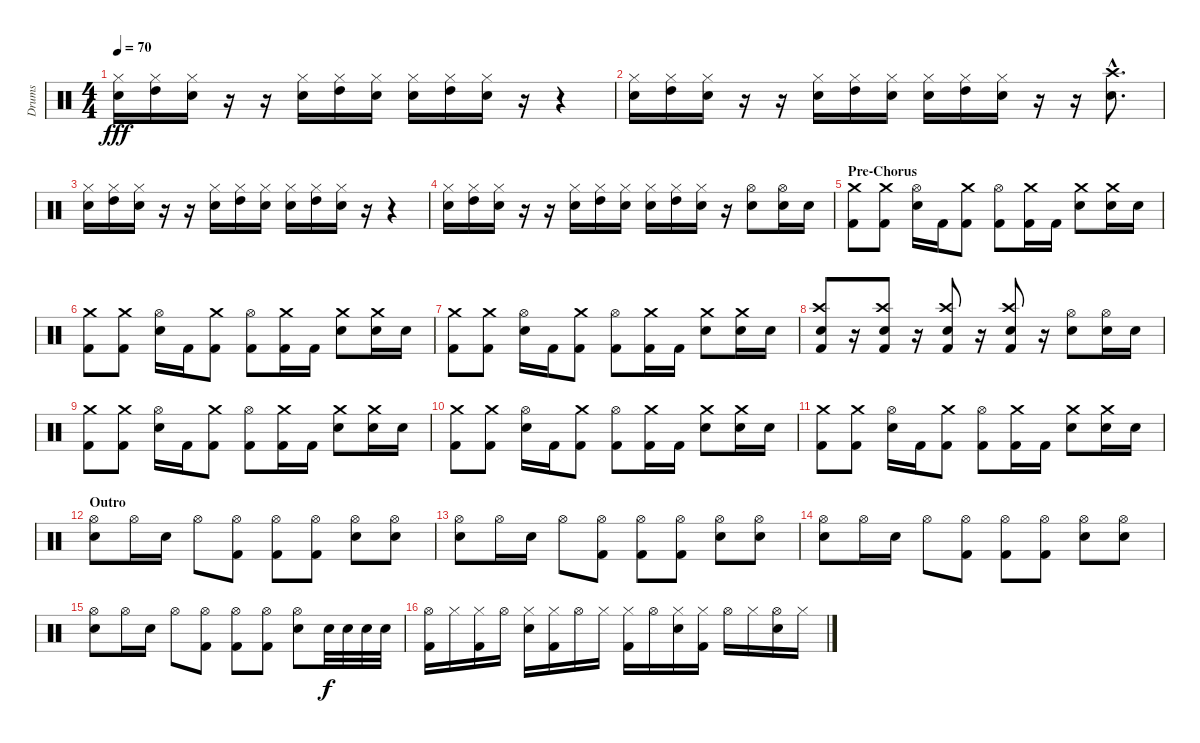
\track ("Drums" "Drums") {instrument percussion}
\staff {score}
\articulation defaults
\ts (4 4)
\tempo 70
\clef neutral
\ks c
("Hi-Hat (closed)" "Electric Snare (hit)").16{dy fff} ("High Tom (hit)" "Hi-Hat (closed)").16 ("Hi-Hat (closed)" "Electric Snare (hit)").16 r.16 r.16 ("Hi-Hat (closed)" "Electric Snare (hit)").16 ("High Tom (hit)" "Hi-Hat (closed)").16 ("Hi-Hat (closed)" "Electric Snare (hit)").16 ("Hi-Hat (closed)" "Electric Snare (hit)").16 ("High Tom (hit)" "Hi-Hat (closed)").16 ("Hi-Hat (closed)" "Electric Snare (hit)").16 r.16 r.4 |
("Hi-Hat (closed)" "Electric Snare (hit)").16 ("High Tom (hit)" "Hi-Hat (closed)").16 ("Hi-Hat (closed)" "Electric Snare (hit)").16 r.16 r.16 ("Hi-Hat (closed)" "Electric Snare (hit)").16 ("High Tom (hit)" "Hi-Hat (closed)").16 ("Hi-Hat (closed)" "Electric Snare (hit)").16 ("Hi-Hat (closed)" "Electric Snare (hit)").16 ("High Tom (hit)" "Hi-Hat (closed)").16 ("Hi-Hat (closed)" "Electric Snare (hit)").16 r.16 r.16 ("Crash high (hit)"{hac} "Electric Snare (hit)"{hac}).8{d} |
("Hi-Hat (closed)" "Electric Snare (hit)").16 ("High Tom (hit)" "Hi-Hat (closed)").16 ("Hi-Hat (closed)" "Electric Snare (hit)").16 r.16 r.16 ("Hi-Hat (closed)" "Electric Snare (hit)").16 ("High Tom (hit)" "Hi-Hat (closed)").16 ("Hi-Hat (closed)" "Electric Snare (hit)").16 ("Hi-Hat (closed)" "Electric Snare (hit)").16 ("High Tom (hit)" "Hi-Hat (closed)").16 ("Hi-Hat (closed)" "Electric Snare (hit)").16 r.16 r.4 |
("Hi-Hat (closed)" "Electric Snare (hit)").16 ("High Tom (hit)" "Hi-Hat (closed)").16 ("Hi-Hat (closed)" "Electric Snare (hit)").16 r.16 r.16 ("Hi-Hat (closed)" "Electric Snare (hit)").16 ("High Tom (hit)" "Hi-Hat (closed)").16 ("Hi-Hat (closed)" "Electric Snare (hit)").16 ("Hi-Hat (closed)" "Electric Snare (hit)").16 ("High Tom (hit)" "Hi-Hat (closed)").16 ("Hi-Hat (closed)" "Electric Snare (hit)").16 r.16 ("Hi-Hat (open)" "Electric Snare (hit)").8 ("Hi-Hat (open)" "Electric Snare (hit)").16 "Electric Snare (hit)".16 |
\section ("" "Pre-Chorus")
("Crash medium (hit)" "Kick (hit) 2").8 ("Crash medium (hit)" "Kick (hit) 2").8 ("Hi-Hat (open)" "Electric Snare (hit)").16 "Kick (hit) 2".16 ("Crash medium (hit)" "Kick (hit) 2").8 ("Hi-Hat (open)" "Kick (hit) 2").8 ("Crash medium (hit)" "Kick (hit) 2").16 "Kick (hit) 2".16 ("Crash medium (hit)" "Electric Snare (hit)").8 ("Crash medium (hit)" "Electric Snare (hit)").16 "Electric Snare (hit)".16 |
("Crash medium (hit)" "Kick (hit) 2").8 ("Crash medium (hit)" "Kick (hit) 2").8 ("Hi-Hat (open)" "Electric Snare (hit)").16 "Kick (hit) 2".16 ("Crash medium (hit)" "Kick (hit) 2").8 ("Hi-Hat (open)" "Kick (hit) 2").8 ("Crash medium (hit)" "Kick (hit) 2").16 "Kick (hit) 2".16 ("Crash medium (hit)" "Electric Snare (hit)").8 ("Crash medium (hit)" "Electric Snare (hit)").16 "Electric Snare (hit)".16 |
("Crash medium (hit)" "Kick (hit) 2").8 ("Crash medium (hit)" "Kick (hit) 2").8 ("Hi-Hat (open)" "Electric Snare (hit)").16 "Kick (hit) 2".16 ("Crash medium (hit)" "Kick (hit) 2").8 ("Hi-Hat (open)" "Kick (hit) 2").8 ("Crash medium (hit)" "Kick (hit) 2").16 "Kick (hit) 2".16 ("Crash medium (hit)" "Electric Snare (hit)").8 ("Crash medium (hit)" "Electric Snare (hit)").16 "Electric Snare (hit)".16 |
("Crash high (hit)" "Electric Snare (hit)" "Kick (hit) 2").8 r.16 ("Crash high (hit)" "Electric Snare (hit)" "Kick (hit) 2").8 r.16 ("Crash high (hit)" "Electric Snare (hit)" "Kick (hit) 2").8 r.16 ("Crash high (hit)" "Electric Snare (hit)" "Kick (hit) 2").8 r.16 ("Hi-Hat (open)" "Electric Snare (hit)").8 ("Hi-Hat (open)" "Electric Snare (hit)").16 "Electric Snare (hit)".16 |
("Crash medium (hit)" "Kick (hit) 2").8 ("Crash medium (hit)" "Kick (hit) 2").8 ("Hi-Hat (open)" "Electric Snare (hit)").16 "Kick (hit) 2".16 ("Crash medium (hit)" "Kick (hit) 2").8 ("Hi-Hat (open)" "Kick (hit) 2").8 ("Crash medium (hit)" "Kick (hit) 2").16 "Kick (hit) 2".16 ("Crash medium (hit)" "Electric Snare (hit)").8 ("Crash medium (hit)" "Electric Snare (hit)").16 "Electric Snare (hit)".16 |
("Crash medium (hit)" "Kick (hit) 2").8 ("Crash medium (hit)" "Kick (hit) 2").8 ("Hi-Hat (open)" "Electric Snare (hit)").16 "Kick (hit) 2".16 ("Crash medium (hit)" "Kick (hit) 2").8 ("Hi-Hat (open)" "Kick (hit) 2").8 ("Crash medium (hit)" "Kick (hit) 2").16 "Kick (hit) 2".16 ("Crash medium (hit)" "Electric Snare (hit)").8 ("Crash medium (hit)" "Electric Snare (hit)").16 "Electric Snare (hit)".16 |
("Crash medium (hit)" "Kick (hit) 2").8 ("Crash medium (hit)" "Kick (hit) 2").8 ("Hi-Hat (open)" "Electric Snare (hit)").16 "Kick (hit) 2".16 ("Crash medium (hit)" "Kick (hit) 2").8 ("Hi-Hat (open)" "Kick (hit) 2").8 ("Crash medium (hit)" "Kick (hit) 2").16 "Kick (hit) 2".16 ("Crash medium (hit)" "Electric Snare (hit)").8 ("Crash medium (hit)" "Electric Snare (hit)").16 "Electric Snare (hit)".16 |
\section ("" "Outro")
("Hi-Hat (open)" "Electric Snare (hit)").8 "Hi-Hat (open)".16 "Electric Snare (hit)".16 "Hi-Hat (open)".8 ("Hi-Hat (open)" "Kick (hit) 2").8 ("Hi-Hat (open)" "Kick (hit) 2").8 ("Hi-Hat (open)" "Kick (hit) 2").8 ("Hi-Hat (open)" "Electric Snare (hit)").8 ("Hi-Hat (open)" "Electric Snare (hit)").8 |
("Hi-Hat (open)" "Electric Snare (hit)").8 "Hi-Hat (open)".16 "Electric Snare (hit)".16 "Hi-Hat (open)".8 ("Hi-Hat (open)" "Kick (hit) 2").8 ("Hi-Hat (open)" "Kick (hit) 2").8 ("Hi-Hat (open)" "Kick (hit) 2").8 ("Hi-Hat (open)" "Electric Snare (hit)").8 ("Hi-Hat (open)" "Electric Snare (hit)").8 |
("Hi-Hat (open)" "Electric Snare (hit)").8 "Hi-Hat (open)".16 "Electric Snare (hit)".16 "Hi-Hat (open)".8 ("Hi-Hat (open)" "Kick (hit) 2").8 ("Hi-Hat (open)" "Kick (hit) 2").8 ("Hi-Hat (open)" "Kick (hit) 2").8 ("Hi-Hat (open)" "Electric Snare (hit)").8 ("Hi-Hat (open)" "Electric Snare (hit)").8 |
("Hi-Hat (open)" "Electric Snare (hit)").8 "Hi-Hat (open)".16 "Electric Snare (hit)".16 "Hi-Hat (open)".8 ("Hi-Hat (open)" "Kick (hit) 2").8 ("Hi-Hat (open)" "Kick (hit) 2").8 ("Hi-Hat (open)" "Kick (hit) 2").8 ("Hi-Hat (open)" "Electric Snare (hit)").8 "Electric Snare (hit)".32{dy f} "Electric Snare (hit)".32 "Electric Snare (hit)".32 "Electric Snare (hit)".32 |
("Hi-Hat (open)" "Kick (hit) 2").16 "Hi-Hat (closed)".16 ("Hi-Hat (closed)" "Kick (hit) 2").16 "Hi-Hat (open)".16 ("Hi-Hat (closed)" "Electric Snare (hit)").16 ("Hi-Hat (closed)" "Kick (hit) 2").16 "Hi-Hat (open)".16 "Hi-Hat (closed)".16 ("Hi-Hat (closed)" "Kick (hit) 2").16 "Hi-Hat (open)".16 ("Hi-Hat (closed)" "Electric Snare (hit)").16 ("Hi-Hat (closed)" "Kick (hit) 2").16 "Hi-Hat (open)".16 "Hi-Hat (closed)".16 ("Hi-Hat (open)" "Electric Snare (hit)").16 "Hi-Hat (closed)".16
